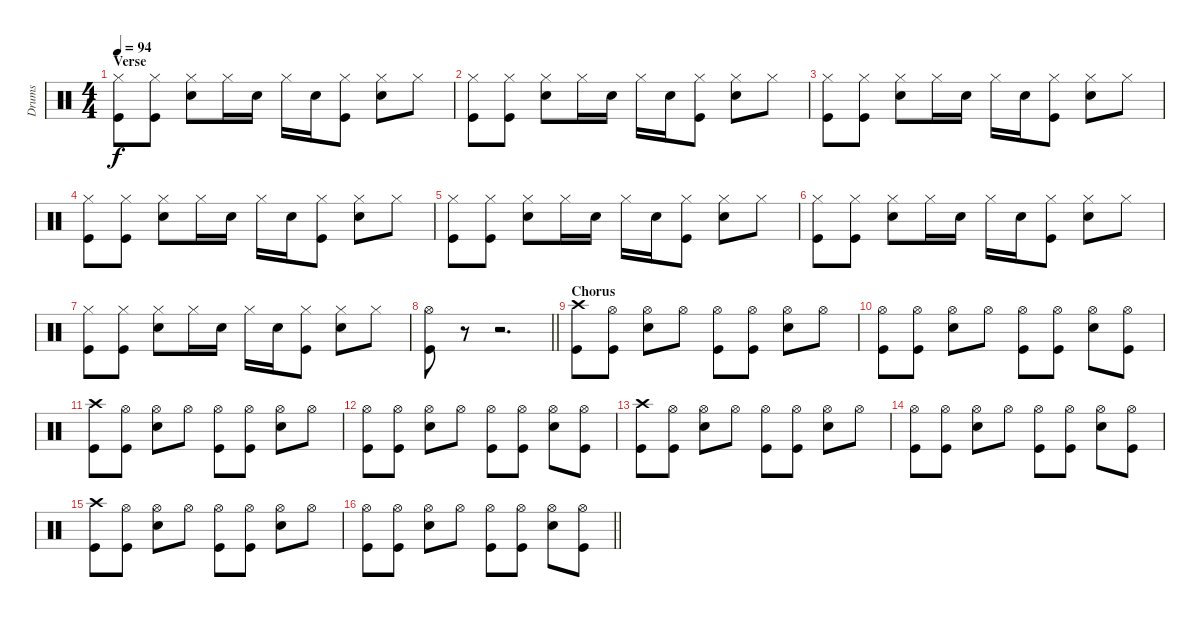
\track ("Drums" "Drums") {instrument percussion}
\staff {score}
\articulation defaults
\ts (4 4)
\section ("" "Verse")
\tempo 94
\clef neutral
\ks c
("Hi-Hat (closed)" "Kick (hit)").8{dy f} ("Hi-Hat (closed)" "Kick (hit)").8 ("Hi-Hat (closed)" "Snare (hit) 2").8 "Hi-Hat (closed)".16 "Snare (hit) 2".16 "Hi-Hat (closed)".16 "Snare (hit) 2".16 ("Hi-Hat (closed)" "Kick (hit)").8 ("Hi-Hat (closed)" "Snare (hit) 2").8 "Hi-Hat (closed)".8 |
("Hi-Hat (closed)" "Kick (hit)").8 ("Hi-Hat (closed)" "Kick (hit)").8 ("Hi-Hat (closed)" "Snare (hit) 2").8 "Hi-Hat (closed)".16 "Snare (hit) 2".16 "Hi-Hat (closed)".16 "Snare (hit) 2".16 ("Hi-Hat (closed)" "Kick (hit)").8 ("Hi-Hat (closed)" "Snare (hit) 2").8 "Hi-Hat (closed)".8 |
("Hi-Hat (closed)" "Kick (hit)").8 ("Hi-Hat (closed)" "Kick (hit)").8 ("Hi-Hat (closed)" "Snare (hit) 2").8 "Hi-Hat (closed)".16 "Snare (hit) 2".16 "Hi-Hat (closed)".16 "Snare (hit) 2".16 ("Hi-Hat (closed)" "Kick (hit)").8 ("Hi-Hat (closed)" "Snare (hit) 2").8 "Hi-Hat (closed)".8 |
("Hi-Hat (closed)" "Kick (hit)").8 ("Hi-Hat (closed)" "Kick (hit)").8 ("Hi-Hat (closed)" "Snare (hit) 2").8 "Hi-Hat (closed)".16 "Snare (hit) 2".16 "Hi-Hat (closed)".16 "Snare (hit) 2".16 ("Hi-Hat (closed)" "Kick (hit)").8 ("Hi-Hat (closed)" "Snare (hit) 2").8 "Hi-Hat (closed)".8 |
("Hi-Hat (closed)" "Kick (hit)").8 ("Hi-Hat (closed)" "Kick (hit)").8 ("Hi-Hat (closed)" "Snare (hit) 2").8 "Hi-Hat (closed)".16 "Snare (hit) 2".16 "Hi-Hat (closed)".16 "Snare (hit) 2".16 ("Hi-Hat (closed)" "Kick (hit)").8 ("Hi-Hat (closed)" "Snare (hit) 2").8 "Hi-Hat (closed)".8 |
("Hi-Hat (closed)" "Kick (hit)").8 ("Hi-Hat (closed)" "Kick (hit)").8 ("Hi-Hat (closed)" "Snare (hit) 2").8 "Hi-Hat (closed)".16 "Snare (hit) 2".16 "Hi-Hat (closed)".16 "Snare (hit) 2".16 ("Hi-Hat (closed)" "Kick (hit)").8 ("Hi-Hat (closed)" "Snare (hit) 2").8 "Hi-Hat (closed)".8 |
("Hi-Hat (closed)" "Kick (hit)").8 ("Hi-Hat (closed)" "Kick (hit)").8 ("Hi-Hat (closed)" "Snare (hit) 2").8 "Hi-Hat (closed)".16 "Snare (hit) 2".16 "Hi-Hat (closed)".16 "Snare (hit) 2".16 ("Hi-Hat (closed)" "Kick (hit)").8 ("Hi-Hat (closed)" "Snare (hit) 2").8 "Hi-Hat (closed)".8 |
\barLineRight lightlight
("Kick (hit)" "Hi-Hat (open)").8 r.8 r.2{d} |
\section ("" "Chorus")
("Crash high (hit)" "Kick (hit)").8 ("Hi-Hat (open)" "Kick (hit)").8 ("Hi-Hat (open)" "Snare (hit) 2").8 "Hi-Hat (open)".8 ("Hi-Hat (open)" "Kick (hit)").8 ("Hi-Hat (open)" "Kick (hit)").8 ("Hi-Hat (open)" "Snare (hit) 2").8 "Hi-Hat (open)".8 |
("Hi-Hat (open)" "Kick (hit)").8 ("Hi-Hat (open)" "Kick (hit)").8 ("Hi-Hat (open)" "Snare (hit) 2").8 "Hi-Hat (open)".8 ("Hi-Hat (open)" "Kick (hit)").8 ("Hi-Hat (open)" "Kick (hit)").8 ("Hi-Hat (open)" "Snare (hit) 2").8 ("Hi-Hat (open)" "Kick (hit)").8 |
("Crash high (hit)" "Kick (hit)").8 ("Hi-Hat (open)" "Kick (hit)").8 ("Hi-Hat (open)" "Snare (hit) 2").8 "Hi-Hat (open)".8 ("Hi-Hat (open)" "Kick (hit)").8 ("Hi-Hat (open)" "Kick (hit)").8 ("Hi-Hat (open)" "Snare (hit) 2").8 "Hi-Hat (open)".8 |
("Hi-Hat (open)" "Kick (hit)").8 ("Hi-Hat (open)" "Kick (hit)").8 ("Hi-Hat (open)" "Snare (hit) 2").8 "Hi-Hat (open)".8 ("Hi-Hat (open)" "Kick (hit)").8 ("Hi-Hat (open)" "Kick (hit)").8 ("Hi-Hat (open)" "Snare (hit) 2").8 ("Hi-Hat (open)" "Kick (hit)").8 |
("Crash high (hit)" "Kick (hit)").8 ("Hi-Hat (open)" "Kick (hit)").8 ("Hi-Hat (open)" "Snare (hit) 2").8 "Hi-Hat (open)".8 ("Hi-Hat (open)" "Kick (hit)").8 ("Hi-Hat (open)" "Kick (hit)").8 ("Hi-Hat (open)" "Snare (hit) 2").8 "Hi-Hat (open)".8 |
("Hi-Hat (open)" "Kick (hit)").8 ("Hi-Hat (open)" "Kick (hit)").8 ("Hi-Hat (open)" "Snare (hit) 2").8 "Hi-Hat (open)".8 ("Hi-Hat (open)" "Kick (hit)").8 ("Hi-Hat (open)" "Kick (hit)").8 ("Hi-Hat (open)" "Snare (hit) 2").8 ("Hi-Hat (open)" "Kick (hit)").8 |
("Crash high (hit)" "Kick (hit)").8 ("Hi-Hat (open)" "Kick (hit)").8 ("Hi-Hat (open)" "Snare (hit) 2").8 "Hi-Hat (open)".8 ("Hi-Hat (open)" "Kick (hit)").8 ("Hi-Hat (open)" "Kick (hit)").8 ("Hi-Hat (open)" "Snare (hit) 2").8 "Hi-Hat (open)".8 |
\barLineRight lightlight
("Hi-Hat (open)" "Kick (hit)").8 ("Hi-Hat (open)" "Kick (hit)").8 ("Hi-Hat (open)" "Snare (hit) 2").8 "Hi-Hat (open)".8 ("Hi-Hat (open)" "Kick (hit)").8 ("Hi-Hat (open)" "Kick (hit)").8 ("Hi-Hat (open)" "Snare (hit) 2").8 ("Hi-Hat (open)" "Kick (hit)").8
